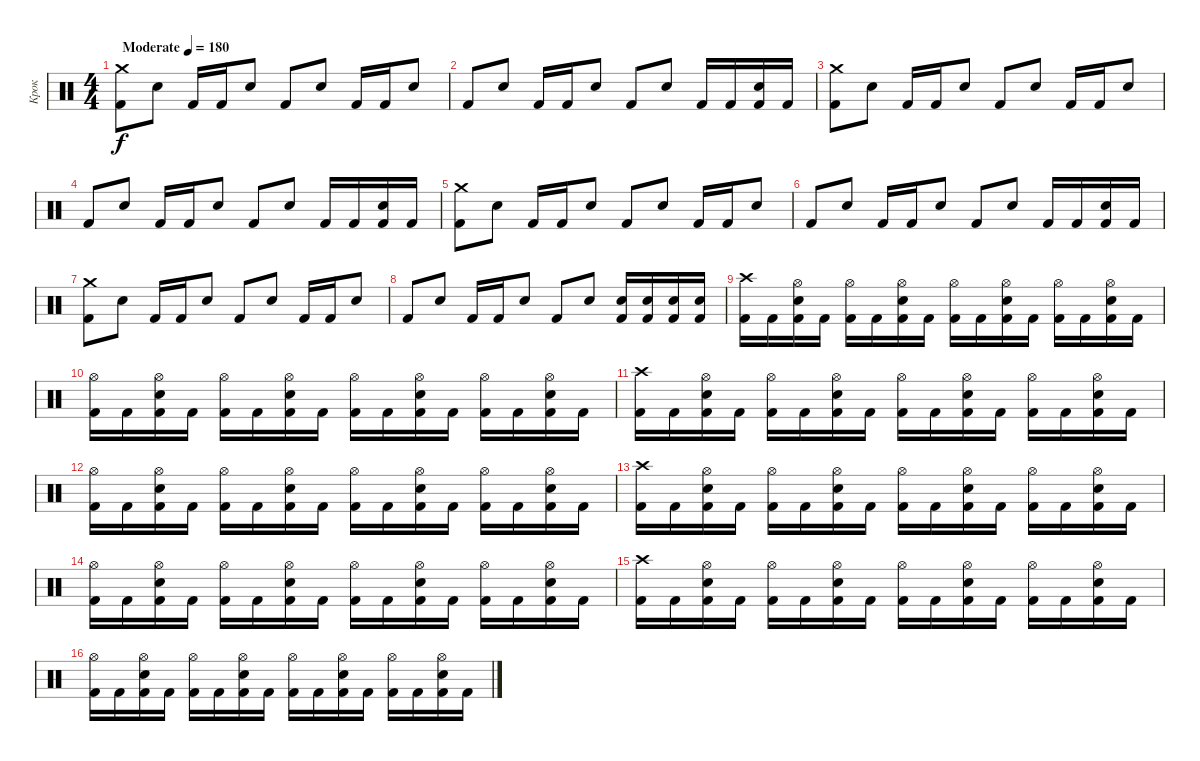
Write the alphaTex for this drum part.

\track ("Крок" "Крок") {instrument percussion}
\staff {score}
\articulation defaults
\ts (4 4)
\tempo (180 "Moderate")
\clef neutral
\ks c
("Kick (hit) 2" "Crash medium (hit)").8{dy f} "Electric Snare (hit)".8 "Kick (hit) 2".16 "Kick (hit) 2".16 "Electric Snare (hit)".8 "Kick (hit) 2".8 "Electric Snare (hit)".8 "Kick (hit) 2".16 "Kick (hit) 2".16 "Electric Snare (hit)".8 |
"Kick (hit) 2".8 "Electric Snare (hit)".8 "Kick (hit) 2".16 "Kick (hit) 2".16 "Electric Snare (hit)".8 "Kick (hit) 2".8 "Electric Snare (hit)".8 "Kick (hit) 2".16 "Kick (hit) 2".16 ("Kick (hit) 2" "Electric Snare (hit)").16 "Kick (hit) 2".16 |
("Kick (hit) 2" "Crash medium (hit)").8 "Electric Snare (hit)".8 "Kick (hit) 2".16 "Kick (hit) 2".16 "Electric Snare (hit)".8 "Kick (hit) 2".8 "Electric Snare (hit)".8 "Kick (hit) 2".16 "Kick (hit) 2".16 "Electric Snare (hit)".8 |
"Kick (hit) 2".8 "Electric Snare (hit)".8 "Kick (hit) 2".16 "Kick (hit) 2".16 "Electric Snare (hit)".8 "Kick (hit) 2".8 "Electric Snare (hit)".8 "Kick (hit) 2".16 "Kick (hit) 2".16 ("Kick (hit) 2" "Electric Snare (hit)").16 "Kick (hit) 2".16 |
("Kick (hit) 2" "Crash medium (hit)").8 "Electric Snare (hit)".8 "Kick (hit) 2".16 "Kick (hit) 2".16 "Electric Snare (hit)".8 "Kick (hit) 2".8 "Electric Snare (hit)".8 "Kick (hit) 2".16 "Kick (hit) 2".16 "Electric Snare (hit)".8 |
"Kick (hit) 2".8 "Electric Snare (hit)".8 "Kick (hit) 2".16 "Kick (hit) 2".16 "Electric Snare (hit)".8 "Kick (hit) 2".8 "Electric Snare (hit)".8 "Kick (hit) 2".16 "Kick (hit) 2".16 ("Kick (hit) 2" "Electric Snare (hit)").16 "Kick (hit) 2".16 |
("Kick (hit) 2" "Crash medium (hit)").8 "Electric Snare (hit)".8 "Kick (hit) 2".16 "Kick (hit) 2".16 "Electric Snare (hit)".8 "Kick (hit) 2".8 "Electric Snare (hit)".8 "Kick (hit) 2".16 "Kick (hit) 2".16 "Electric Snare (hit)".8 |
"Kick (hit) 2".8 "Electric Snare (hit)".8 "Kick (hit) 2".16 "Kick (hit) 2".16 "Electric Snare (hit)".8 "Kick (hit) 2".8 "Electric Snare (hit)".8 ("Kick (hit) 2" "Electric Snare (hit)").16 ("Kick (hit) 2" "Electric Snare (hit)").16 ("Kick (hit) 2" "Electric Snare (hit)").16 ("Kick (hit) 2" "Electric Snare (hit)").16 |
("Kick (hit) 2" "Crash high (hit)").16 "Kick (hit) 2".16 ("Kick (hit) 2" "Electric Snare (hit)" "Hi-Hat (open)").16 "Kick (hit) 2".16 ("Kick (hit) 2" "Hi-Hat (open)").16 "Kick (hit) 2".16 ("Kick (hit) 2" "Electric Snare (hit)" "Hi-Hat (open)").16 "Kick (hit) 2".16 ("Kick (hit) 2" "Hi-Hat (open)").16 "Kick (hit) 2".16 ("Kick (hit) 2" "Electric Snare (hit)" "Hi-Hat (open)").16 "Kick (hit) 2".16 ("Kick (hit) 2" "Hi-Hat (open)").16 "Kick (hit) 2".16 ("Kick (hit) 2" "Electric Snare (hit)" "Hi-Hat (open)").16 "Kick (hit) 2".16 |
("Kick (hit) 2" "Hi-Hat (open)").16 "Kick (hit) 2".16 ("Kick (hit) 2" "Electric Snare (hit)" "Hi-Hat (open)").16 "Kick (hit) 2".16 ("Kick (hit) 2" "Hi-Hat (open)").16 "Kick (hit) 2".16 ("Kick (hit) 2" "Electric Snare (hit)" "Hi-Hat (open)").16 "Kick (hit) 2".16 ("Kick (hit) 2" "Hi-Hat (open)").16 "Kick (hit) 2".16 ("Kick (hit) 2" "Electric Snare (hit)" "Hi-Hat (open)").16 "Kick (hit) 2".16 ("Kick (hit) 2" "Hi-Hat (open)").16 "Kick (hit) 2".16 ("Kick (hit) 2" "Electric Snare (hit)" "Hi-Hat (open)").16 "Kick (hit) 2".16 |
("Kick (hit) 2" "Crash high (hit)").16 "Kick (hit) 2".16 ("Kick (hit) 2" "Electric Snare (hit)" "Hi-Hat (open)").16 "Kick (hit) 2".16 ("Kick (hit) 2" "Hi-Hat (open)").16 "Kick (hit) 2".16 ("Kick (hit) 2" "Electric Snare (hit)" "Hi-Hat (open)").16 "Kick (hit) 2".16 ("Kick (hit) 2" "Hi-Hat (open)").16 "Kick (hit) 2".16 ("Kick (hit) 2" "Electric Snare (hit)" "Hi-Hat (open)").16 "Kick (hit) 2".16 ("Kick (hit) 2" "Hi-Hat (open)").16 "Kick (hit) 2".16 ("Kick (hit) 2" "Electric Snare (hit)" "Hi-Hat (open)").16 "Kick (hit) 2".16 |
("Kick (hit) 2" "Hi-Hat (open)").16 "Kick (hit) 2".16 ("Kick (hit) 2" "Electric Snare (hit)" "Hi-Hat (open)").16 "Kick (hit) 2".16 ("Kick (hit) 2" "Hi-Hat (open)").16 "Kick (hit) 2".16 ("Kick (hit) 2" "Electric Snare (hit)" "Hi-Hat (open)").16 "Kick (hit) 2".16 ("Kick (hit) 2" "Hi-Hat (open)").16 "Kick (hit) 2".16 ("Kick (hit) 2" "Electric Snare (hit)" "Hi-Hat (open)").16 "Kick (hit) 2".16 ("Kick (hit) 2" "Hi-Hat (open)").16 "Kick (hit) 2".16 ("Kick (hit) 2" "Electric Snare (hit)" "Hi-Hat (open)").16 "Kick (hit) 2".16 |
("Kick (hit) 2" "Crash high (hit)").16 "Kick (hit) 2".16 ("Kick (hit) 2" "Electric Snare (hit)" "Hi-Hat (open)").16 "Kick (hit) 2".16 ("Kick (hit) 2" "Hi-Hat (open)").16 "Kick (hit) 2".16 ("Kick (hit) 2" "Electric Snare (hit)" "Hi-Hat (open)").16 "Kick (hit) 2".16 ("Kick (hit) 2" "Hi-Hat (open)").16 "Kick (hit) 2".16 ("Kick (hit) 2" "Electric Snare (hit)" "Hi-Hat (open)").16 "Kick (hit) 2".16 ("Kick (hit) 2" "Hi-Hat (open)").16 "Kick (hit) 2".16 ("Kick (hit) 2" "Electric Snare (hit)" "Hi-Hat (open)").16 "Kick (hit) 2".16 |
("Kick (hit) 2" "Hi-Hat (open)").16 "Kick (hit) 2".16 ("Kick (hit) 2" "Electric Snare (hit)" "Hi-Hat (open)").16 "Kick (hit) 2".16 ("Kick (hit) 2" "Hi-Hat (open)").16 "Kick (hit) 2".16 ("Kick (hit) 2" "Electric Snare (hit)" "Hi-Hat (open)").16 "Kick (hit) 2".16 ("Kick (hit) 2" "Hi-Hat (open)").16 "Kick (hit) 2".16 ("Kick (hit) 2" "Electric Snare (hit)" "Hi-Hat (open)").16 "Kick (hit) 2".16 ("Kick (hit) 2" "Hi-Hat (open)").16 "Kick (hit) 2".16 ("Kick (hit) 2" "Electric Snare (hit)" "Hi-Hat (open)").16 "Kick (hit) 2".16 |
("Kick (hit) 2" "Crash high (hit)").16 "Kick (hit) 2".16 ("Kick (hit) 2" "Electric Snare (hit)" "Hi-Hat (open)").16 "Kick (hit) 2".16 ("Kick (hit) 2" "Hi-Hat (open)").16 "Kick (hit) 2".16 ("Kick (hit) 2" "Electric Snare (hit)" "Hi-Hat (open)").16 "Kick (hit) 2".16 ("Kick (hit) 2" "Hi-Hat (open)").16 "Kick (hit) 2".16 ("Kick (hit) 2" "Electric Snare (hit)" "Hi-Hat (open)").16 "Kick (hit) 2".16 ("Kick (hit) 2" "Hi-Hat (open)").16 "Kick (hit) 2".16 ("Kick (hit) 2" "Electric Snare (hit)" "Hi-Hat (open)").16 "Kick (hit) 2".16 |
("Kick (hit) 2" "Hi-Hat (open)").16 "Kick (hit) 2".16 ("Kick (hit) 2" "Electric Snare (hit)" "Hi-Hat (open)").16 "Kick (hit) 2".16 ("Kick (hit) 2" "Hi-Hat (open)").16 "Kick (hit) 2".16 ("Kick (hit) 2" "Electric Snare (hit)" "Hi-Hat (open)").16 "Kick (hit) 2".16 ("Kick (hit) 2" "Hi-Hat (open)").16 "Kick (hit) 2".16 ("Kick (hit) 2" "Electric Snare (hit)" "Hi-Hat (open)").16 "Kick (hit) 2".16 ("Kick (hit) 2" "Hi-Hat (open)").16 "Kick (hit) 2".16 ("Kick (hit) 2" "Electric Snare (hit)" "Hi-Hat (open)").16 "Kick (hit) 2".16
